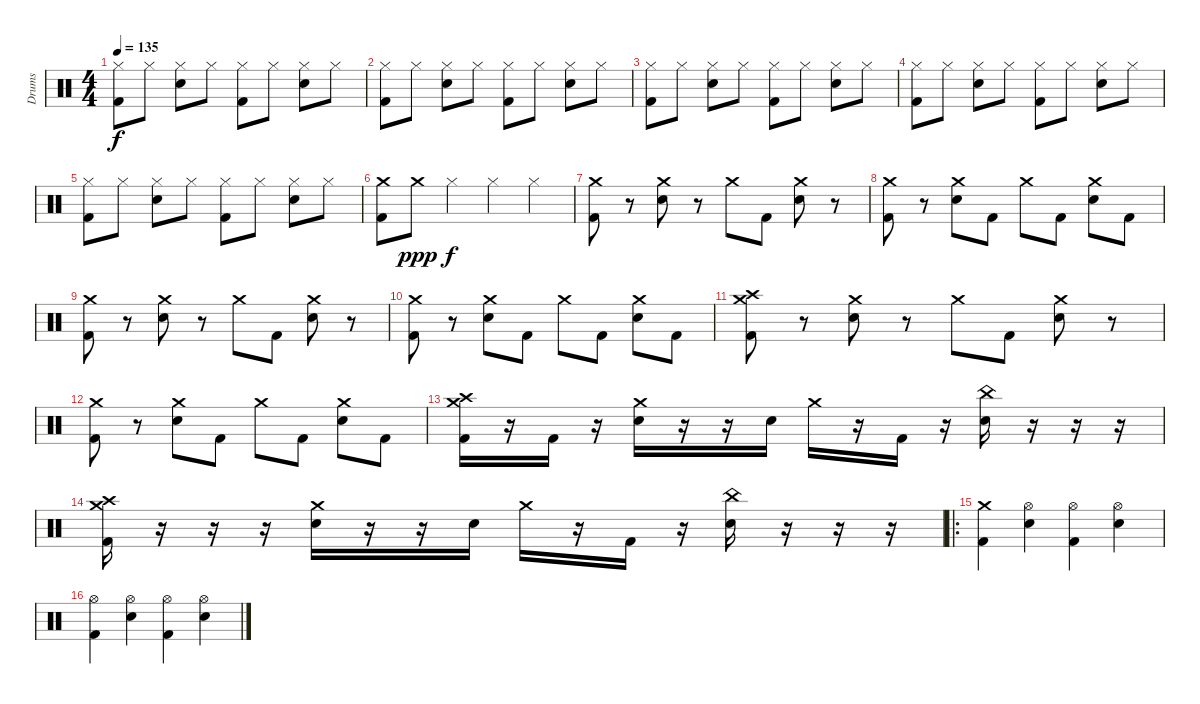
\track ("Drums" "Drums") {instrument percussion}
\staff {score}
\articulation defaults
\ts (4 4)
\tempo 135
\clef neutral
\ks c
("Hi-Hat (closed)" "Kick (hit) 2").8{dy f} "Hi-Hat (closed)".8 ("Hi-Hat (closed)" "Electric Snare (hit)").8 "Hi-Hat (closed)".8 ("Hi-Hat (closed)" "Kick (hit) 2").8 "Hi-Hat (closed)".8 ("Hi-Hat (closed)" "Electric Snare (hit)").8 "Hi-Hat (closed)".8 |
("Hi-Hat (closed)" "Kick (hit) 2").8 "Hi-Hat (closed)".8 ("Hi-Hat (closed)" "Electric Snare (hit)").8 "Hi-Hat (closed)".8 ("Hi-Hat (closed)" "Kick (hit) 2").8 "Hi-Hat (closed)".8 ("Hi-Hat (closed)" "Electric Snare (hit)").8 "Hi-Hat (closed)".8 |
("Hi-Hat (closed)" "Kick (hit) 2").8 "Hi-Hat (closed)".8 ("Hi-Hat (closed)" "Electric Snare (hit)").8 "Hi-Hat (closed)".8 ("Hi-Hat (closed)" "Kick (hit) 2").8 "Hi-Hat (closed)".8 ("Hi-Hat (closed)" "Electric Snare (hit)").8 "Hi-Hat (closed)".8 |
("Hi-Hat (closed)" "Kick (hit) 2").8 "Hi-Hat (closed)".8 ("Hi-Hat (closed)" "Electric Snare (hit)").8 "Hi-Hat (closed)".8 ("Hi-Hat (closed)" "Kick (hit) 2").8 "Hi-Hat (closed)".8 ("Hi-Hat (closed)" "Electric Snare (hit)").8 "Hi-Hat (closed)".8 |
("Hi-Hat (closed)" "Kick (hit) 2").8 "Hi-Hat (closed)".8 ("Hi-Hat (closed)" "Electric Snare (hit)").8 "Hi-Hat (closed)".8 ("Hi-Hat (closed)" "Kick (hit) 2").8 "Hi-Hat (closed)".8 ("Hi-Hat (closed)" "Electric Snare (hit)").8 "Hi-Hat (closed)".8 |
("Crash medium (hit)" "Kick (hit) 2").8 "Crash medium (hit)".8{dy ppp} "Hi-Hat (closed)".4{dy f} "Hi-Hat (closed)".4 "Hi-Hat (closed)".4 |
("Crash medium (hit)" "Kick (hit) 2").8 r.8 ("Crash medium (hit)" "Electric Snare (hit)").8 r.8 "Crash medium (hit)".8 "Kick (hit) 2".8 ("Crash medium (hit)" "Electric Snare (hit)").8 r.8 |
("Crash medium (hit)" "Kick (hit) 2").8 r.8 ("Crash medium (hit)" "Electric Snare (hit)").8 "Kick (hit) 2".8 "Crash medium (hit)".8 "Kick (hit) 2".8 ("Crash medium (hit)" "Electric Snare (hit)").8 "Kick (hit) 2".8 |
("Crash medium (hit)" "Kick (hit) 2").8 r.8 ("Crash medium (hit)" "Electric Snare (hit)").8 r.8 "Crash medium (hit)".8 "Kick (hit) 2".8 ("Crash medium (hit)" "Electric Snare (hit)").8 r.8 |
("Crash medium (hit)" "Kick (hit) 2").8 r.8 ("Crash medium (hit)" "Electric Snare (hit)").8 "Kick (hit) 2".8 "Crash medium (hit)".8 "Kick (hit) 2".8 ("Crash medium (hit)" "Electric Snare (hit)").8 "Kick (hit) 2".8 |
("Crash high (hit)" "Crash medium (hit)" "Kick (hit) 2").8 r.8 ("Crash medium (hit)" "Electric Snare (hit)").8 r.8 "Crash medium (hit)".8 "Kick (hit) 2".8 ("Crash medium (hit)" "Electric Snare (hit)").8 r.8 |
("Crash medium (hit)" "Kick (hit) 2").8 r.8 ("Crash medium (hit)" "Electric Snare (hit)").8 "Kick (hit) 2".8 "Crash medium (hit)".8 "Kick (hit) 2".8 ("Crash medium (hit)" "Electric Snare (hit)").8 "Kick (hit) 2".8 |
("Crash high (hit)" "Crash medium (hit)" "Kick (hit) 2").16 r.16 "Kick (hit) 2".16 r.16 ("Crash medium (hit)" "Electric Snare (hit)").16 r.16 r.16 "Electric Snare (hit)".16 "Crash medium (hit)".16 r.16 "Kick (hit) 2".16 r.16 ("China (hit)" "Electric Snare (hit)").16 r.16 r.16 r.16 |
("Crash high (hit)" "Crash medium (hit)" "Kick (hit) 2").16 r.16 r.16 r.16 ("Crash medium (hit)" "Electric Snare (hit)").16 r.16 r.16 "Electric Snare (hit)".16 "Crash medium (hit)".16 r.16 "Kick (hit) 2".16 r.16 ("China (hit)" "Electric Snare (hit)").16 r.16 r.16 r.16 |
\ro
("Crash medium (hit)" "Kick (hit) 2").4 ("Hi-Hat (open)" "Electric Snare (hit)").4 ("Hi-Hat (open)" "Kick (hit) 2").4 ("Hi-Hat (open)" "Electric Snare (hit)").4 |
("Hi-Hat (open)" "Kick (hit) 2").4 ("Hi-Hat (open)" "Electric Snare (hit)").4 ("Hi-Hat (open)" "Kick (hit) 2").4 ("Hi-Hat (open)" "Electric Snare (hit)").4
